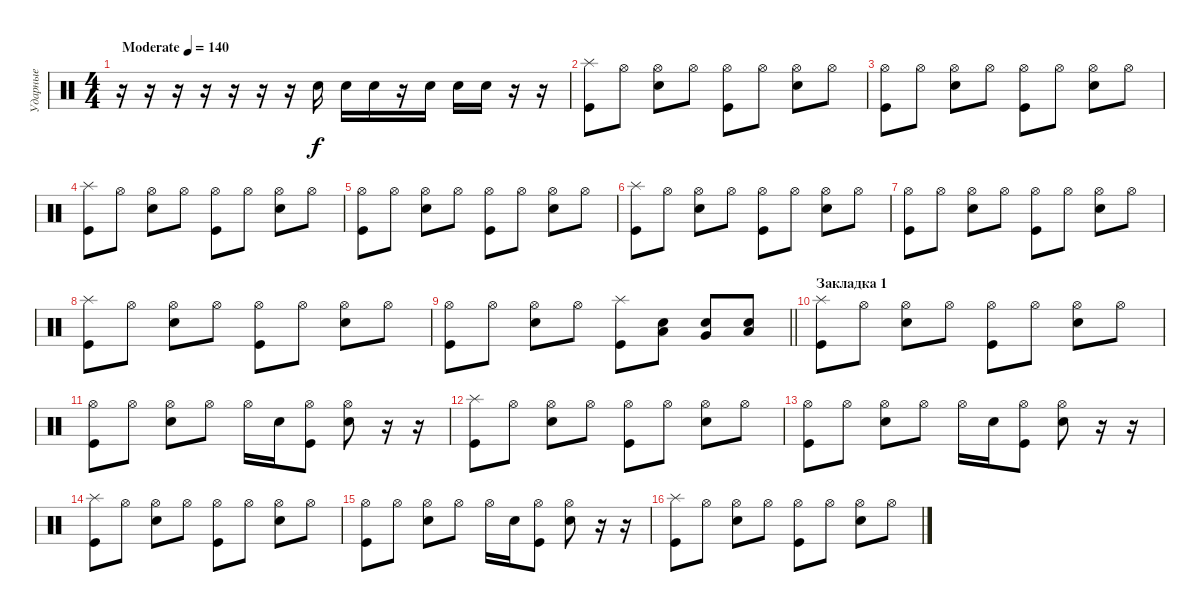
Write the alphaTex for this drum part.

\track ("Ударные" "Ударные") {instrument percussion}
\staff {score}
\articulation defaults
\ts (4 4)
\tempo (140 "Moderate")
\clef neutral
\ks c
r.16{dy f} r.16 r.16 r.16 r.16 r.16 r.16 "Snare (hit) 2".16 "Snare (hit) 2".16 "Snare (hit) 2".16 r.16 "Snare (hit) 2".16 "Snare (hit) 2".16 "Snare (hit) 2".16 r.16 r.16 |
("Splash (hit)" "Kick (hit)").8 "Hi-Hat (open)".8 ("Hi-Hat (open)" "Snare (hit) 2").8 "Hi-Hat (open)".8 ("Hi-Hat (open)" "Kick (hit)").8 "Hi-Hat (open)".8 ("Hi-Hat (open)" "Snare (hit) 2").8 "Hi-Hat (open)".8 |
("Hi-Hat (open)" "Kick (hit)").8 "Hi-Hat (open)".8 ("Hi-Hat (open)" "Snare (hit) 2").8 "Hi-Hat (open)".8 ("Hi-Hat (open)" "Kick (hit)").8 "Hi-Hat (open)".8 ("Hi-Hat (open)" "Snare (hit) 2").8 "Hi-Hat (open)".8 |
("Splash (hit)" "Kick (hit)").8 "Hi-Hat (open)".8 ("Hi-Hat (open)" "Snare (hit) 2").8 "Hi-Hat (open)".8 ("Hi-Hat (open)" "Kick (hit)").8 "Hi-Hat (open)".8 ("Hi-Hat (open)" "Snare (hit) 2").8 "Hi-Hat (open)".8 |
("Hi-Hat (open)" "Kick (hit)").8 "Hi-Hat (open)".8 ("Hi-Hat (open)" "Snare (hit) 2").8 "Hi-Hat (open)".8 ("Hi-Hat (open)" "Kick (hit)").8 "Hi-Hat (open)".8 ("Hi-Hat (open)" "Snare (hit) 2").8 "Hi-Hat (open)".8 |
("Splash (hit)" "Kick (hit)").8 "Hi-Hat (open)".8 ("Hi-Hat (open)" "Snare (hit) 2").8 "Hi-Hat (open)".8 ("Hi-Hat (open)" "Kick (hit)").8 "Hi-Hat (open)".8 ("Hi-Hat (open)" "Snare (hit) 2").8 "Hi-Hat (open)".8 |
("Hi-Hat (open)" "Kick (hit)").8 "Hi-Hat (open)".8 ("Hi-Hat (open)" "Snare (hit) 2").8 "Hi-Hat (open)".8 ("Hi-Hat (open)" "Kick (hit)").8 "Hi-Hat (open)".8 ("Hi-Hat (open)" "Snare (hit) 2").8 "Hi-Hat (open)".8 |
("Splash (hit)" "Kick (hit)").8 "Hi-Hat (open)".8 ("Hi-Hat (open)" "Snare (hit) 2").8 "Hi-Hat (open)".8 ("Hi-Hat (open)" "Kick (hit)").8 "Hi-Hat (open)".8 ("Hi-Hat (open)" "Snare (hit) 2").8 "Hi-Hat (open)".8 |
\barLineRight lightlight
("Hi-Hat (open)" "Kick (hit)").8 "Hi-Hat (open)".8 ("Hi-Hat (open)" "Snare (hit) 2").8 "Hi-Hat (open)".8 ("Splash (hit)" "Kick (hit)").8 ("Snare (hit) 2" "Low Floor Tom (hit)").8 ("Snare (hit) 2" "Very Low Tom (hit)").8 ("Snare (hit) 2" "Low Floor Tom (hit)").8 |
\section ("" "Закладка 1")
("Splash (hit)" "Kick (hit)").8 "Hi-Hat (open)".8 ("Hi-Hat (open)" "Snare (hit) 2").8 "Hi-Hat (open)".8 ("Hi-Hat (open)" "Kick (hit)").8 "Hi-Hat (open)".8 ("Hi-Hat (open)" "Snare (hit) 2").8 "Hi-Hat (open)".8 |
("Hi-Hat (open)" "Kick (hit)").8 "Hi-Hat (open)".8 ("Hi-Hat (open)" "Snare (hit) 2").8 "Hi-Hat (open)".8 "Hi-Hat (open)".16 "Snare (hit) 2".16 ("Hi-Hat (open)" "Kick (hit)").8 ("Hi-Hat (open)" "Snare (hit) 2").8 r.16 r.16 |
("Splash (hit)" "Kick (hit)").8 "Hi-Hat (open)".8 ("Hi-Hat (open)" "Snare (hit) 2").8 "Hi-Hat (open)".8 ("Hi-Hat (open)" "Kick (hit)").8 "Hi-Hat (open)".8 ("Hi-Hat (open)" "Snare (hit) 2").8 "Hi-Hat (open)".8 |
("Hi-Hat (open)" "Kick (hit)").8 "Hi-Hat (open)".8 ("Hi-Hat (open)" "Snare (hit) 2").8 "Hi-Hat (open)".8 "Hi-Hat (open)".16 "Snare (hit) 2".16 ("Hi-Hat (open)" "Kick (hit)").8 ("Hi-Hat (open)" "Snare (hit) 2").8 r.16 r.16 |
("Splash (hit)" "Kick (hit)").8 "Hi-Hat (open)".8 ("Hi-Hat (open)" "Snare (hit) 2").8 "Hi-Hat (open)".8 ("Hi-Hat (open)" "Kick (hit)").8 "Hi-Hat (open)".8 ("Hi-Hat (open)" "Snare (hit) 2").8 "Hi-Hat (open)".8 |
("Hi-Hat (open)" "Kick (hit)").8 "Hi-Hat (open)".8 ("Hi-Hat (open)" "Snare (hit) 2").8 "Hi-Hat (open)".8 "Hi-Hat (open)".16 "Snare (hit) 2".16 ("Hi-Hat (open)" "Kick (hit)").8 ("Hi-Hat (open)" "Snare (hit) 2").8 r.16 r.16 |
("Splash (hit)" "Kick (hit)").8 "Hi-Hat (open)".8 ("Hi-Hat (open)" "Snare (hit) 2").8 "Hi-Hat (open)".8 ("Hi-Hat (open)" "Kick (hit)").8 "Hi-Hat (open)".8 ("Hi-Hat (open)" "Snare (hit) 2").8 "Hi-Hat (open)".8
